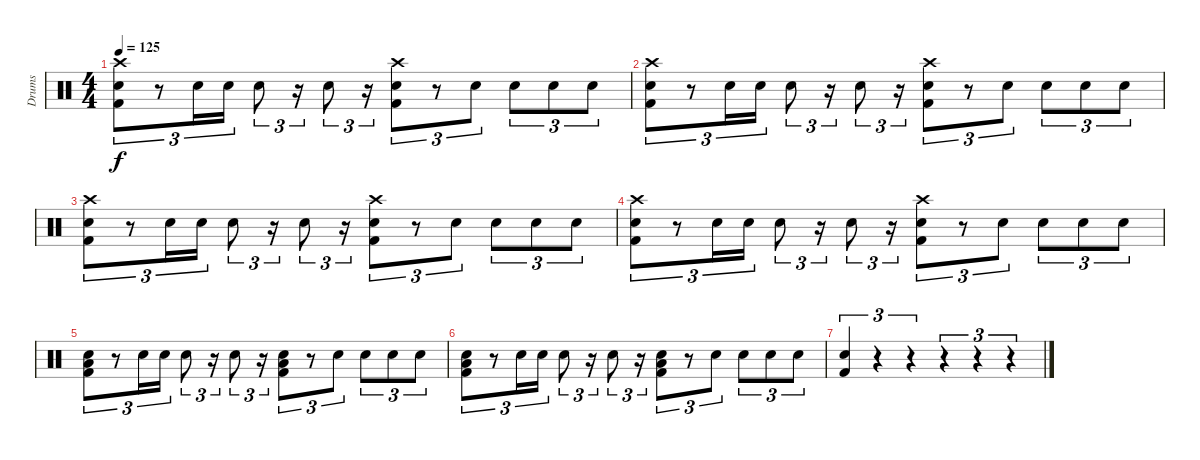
\track ("Drums" "Drums") {instrument percussion}
\staff {score}
\articulation defaults
\ts (4 4)
\tempo 125
\clef neutral
\ks c
("Crash high (hit)" "Snare (hit) 2" "Kick (hit) 2").8{tu (3 2) dy f} r.8{tu (3 2)} "Snare (hit) 2".16{tu (3 2)} "Snare (hit) 2".16{tu (3 2)} "Snare (hit) 2".8{tu (3 2)} r.16{tu (3 2)} "Snare (hit) 2".8{tu (3 2)} r.16{tu (3 2)} ("Crash high (hit)" "Snare (hit) 2" "Kick (hit) 2").8{tu (3 2)} r.8{tu (3 2)} "Snare (hit) 2".8{tu (3 2)} "Snare (hit) 2".8{tu (3 2)} "Snare (hit) 2".8{tu (3 2)} "Snare (hit) 2".8{tu (3 2)} |
("Crash high (hit)" "Snare (hit) 2" "Kick (hit) 2").8{tu (3 2)} r.8{tu (3 2)} "Snare (hit) 2".16{tu (3 2)} "Snare (hit) 2".16{tu (3 2)} "Snare (hit) 2".8{tu (3 2)} r.16{tu (3 2)} "Snare (hit) 2".8{tu (3 2)} r.16{tu (3 2)} ("Crash high (hit)" "Snare (hit) 2" "Kick (hit) 2").8{tu (3 2)} r.8{tu (3 2)} "Snare (hit) 2".8{tu (3 2)} "Snare (hit) 2".8{tu (3 2)} "Snare (hit) 2".8{tu (3 2)} "Snare (hit) 2".8{tu (3 2)} |
("Crash high (hit)" "Snare (hit) 2" "Kick (hit) 2").8{tu (3 2)} r.8{tu (3 2)} "Snare (hit) 2".16{tu (3 2)} "Snare (hit) 2".16{tu (3 2)} "Snare (hit) 2".8{tu (3 2)} r.16{tu (3 2)} "Snare (hit) 2".8{tu (3 2)} r.16{tu (3 2)} ("Crash high (hit)" "Snare (hit) 2" "Kick (hit) 2").8{tu (3 2)} r.8{tu (3 2)} "Snare (hit) 2".8{tu (3 2)} "Snare (hit) 2".8{tu (3 2)} "Snare (hit) 2".8{tu (3 2)} "Snare (hit) 2".8{tu (3 2)} |
("Crash high (hit)" "Snare (hit) 2" "Kick (hit) 2").8{tu (3 2)} r.8{tu (3 2)} "Snare (hit) 2".16{tu (3 2)} "Snare (hit) 2".16{tu (3 2)} "Snare (hit) 2".8{tu (3 2)} r.16{tu (3 2)} "Snare (hit) 2".8{tu (3 2)} r.16{tu (3 2)} ("Crash high (hit)" "Snare (hit) 2" "Kick (hit) 2").8{tu (3 2)} r.8{tu (3 2)} "Snare (hit) 2".8{tu (3 2)} "Snare (hit) 2".8{tu (3 2)} "Snare (hit) 2".8{tu (3 2)} "Snare (hit) 2".8{tu (3 2)} |
("Low Floor Tom (hit)" "Snare (hit) 2" "Kick (hit) 2").8{tu (3 2)} r.8{tu (3 2)} "Snare (hit) 2".16{tu (3 2)} "Snare (hit) 2".16{tu (3 2)} "Snare (hit) 2".8{tu (3 2)} r.16{tu (3 2)} "Snare (hit) 2".8{tu (3 2)} r.16{tu (3 2)} ("Low Floor Tom (hit)" "Snare (hit) 2" "Kick (hit) 2").8{tu (3 2)} r.8{tu (3 2)} "Snare (hit) 2".8{tu (3 2)} "Snare (hit) 2".8{tu (3 2)} "Snare (hit) 2".8{tu (3 2)} "Snare (hit) 2".8{tu (3 2)} |
("Low Floor Tom (hit)" "Snare (hit) 2" "Kick (hit) 2").8{tu (3 2)} r.8{tu (3 2)} "Snare (hit) 2".16{tu (3 2)} "Snare (hit) 2".16{tu (3 2)} "Snare (hit) 2".8{tu (3 2)} r.16{tu (3 2)} "Snare (hit) 2".8{tu (3 2)} r.16{tu (3 2)} ("Low Floor Tom (hit)" "Snare (hit) 2" "Kick (hit) 2").8{tu (3 2)} r.8{tu (3 2)} "Snare (hit) 2".8{tu (3 2)} "Snare (hit) 2".8{tu (3 2)} "Snare (hit) 2".8{tu (3 2)} "Snare (hit) 2".8{tu (3 2)} |
("Snare (hit) 2" "Kick (hit) 2").4{tu (3 2)} r.4{tu (3 2)} r.4{tu (3 2)} r.4{tu (3 2)} r.4{tu (3 2)} r.4{tu (3 2)}
